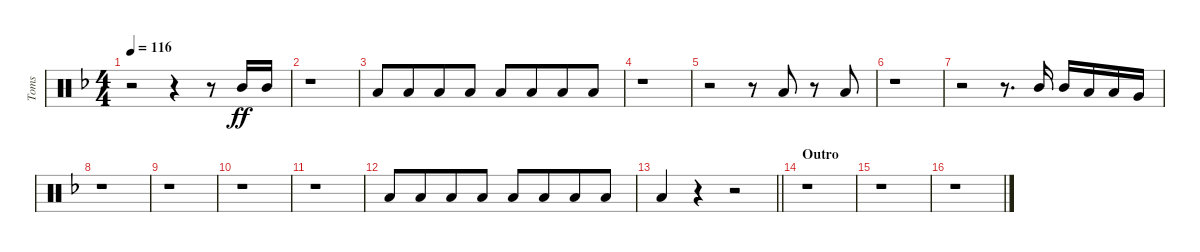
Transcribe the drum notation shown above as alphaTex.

\track ("Toms" "Toms") {instrument percussion}
\staff {score}
\articulation defaults
\ts (4 4)
\tempo 116
\clef neutral
\ks f
r.2{dy ff} r.4 r.8{balance 11} "Mid Tom (hit)".16{beam Up} "Mid Tom (hit)".16{beam Up} |
r.1 |
"Low Tom (hit)".8{balance 5 beam Up} "Low Tom (hit)".8{beam Up beam merge} "Low Tom (hit)".8{beam Up} "Low Tom (hit)".8{beam Up} "Low Tom (hit)".8{beam Up} "Low Tom (hit)".8{beam Up beam merge} "Low Tom (hit)".8{beam Up} "Low Tom (hit)".8{beam Up} |
r.1 |
r.2 r.8 "Low Tom (hit)".8{beam Up} r.8 "Low Tom (hit)".8{beam Up} |
r.1 |
r.2 r.8{d balance 11} "Mid Tom (hit)".16{beam Up} "Mid Tom (hit)".16{beam Up} "Low Tom (hit)".16{balance 5 beam Up} "Low Tom (hit)".16{beam Up} "Very Low Tom (hit)".16{beam Up} |
r.1 |
r.1 |
r.1 |
r.1 |
"Low Tom (hit)".8{beam Up} "Low Tom (hit)".8{beam Up beam merge} "Low Tom (hit)".8{beam Up} "Low Tom (hit)".8{beam Up} "Low Tom (hit)".8{beam Up} "Low Tom (hit)".8{beam Up beam merge} "Low Tom (hit)".8{beam Up} "Low Tom (hit)".8{beam Up} |
\barLineRight lightlight "Low Tom (hit)".4{volume 0 beam Up}
r.4 r.2 |
\section ("" "Outro")
r.1 |
r.1 |
r.1
